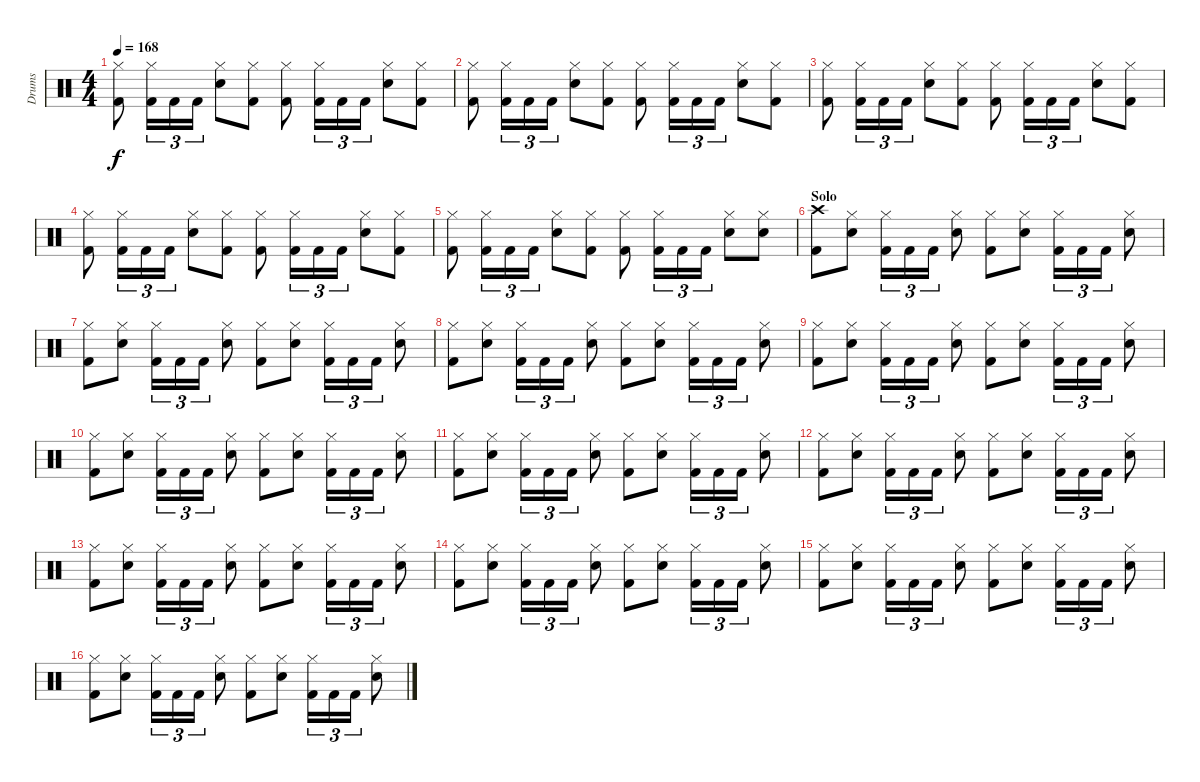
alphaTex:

\track ("Drums" "Drums") {instrument percussion}
\staff {score}
\articulation defaults
\ts (4 4)
\tempo 168
\clef neutral
\ks c
("Hi-Hat (closed)" "Kick (hit) 2").8{dy f} ("Hi-Hat (closed)" "Kick (hit) 2").16{tu (3 2)} "Kick (hit) 2".16{tu (3 2)} "Kick (hit) 2".16{tu (3 2)} ("Hi-Hat (closed)" "Snare (hit) 2").8 ("Hi-Hat (closed)" "Kick (hit) 2").8 ("Hi-Hat (closed)" "Kick (hit) 2").8 ("Hi-Hat (closed)" "Kick (hit) 2").16{tu (3 2)} "Kick (hit) 2".16{tu (3 2)} "Kick (hit) 2".16{tu (3 2)} ("Hi-Hat (closed)" "Snare (hit) 2").8 ("Hi-Hat (closed)" "Kick (hit) 2").8 |
("Hi-Hat (closed)" "Kick (hit) 2").8 ("Hi-Hat (closed)" "Kick (hit) 2").16{tu (3 2)} "Kick (hit) 2".16{tu (3 2)} "Kick (hit) 2".16{tu (3 2)} ("Hi-Hat (closed)" "Snare (hit) 2").8 ("Hi-Hat (closed)" "Kick (hit) 2").8 ("Hi-Hat (closed)" "Kick (hit) 2").8 ("Hi-Hat (closed)" "Kick (hit) 2").16{tu (3 2)} "Kick (hit) 2".16{tu (3 2)} "Kick (hit) 2".16{tu (3 2)} ("Hi-Hat (closed)" "Snare (hit) 2").8 ("Hi-Hat (closed)" "Kick (hit) 2").8 |
("Hi-Hat (closed)" "Kick (hit) 2").8 ("Hi-Hat (closed)" "Kick (hit) 2").16{tu (3 2)} "Kick (hit) 2".16{tu (3 2)} "Kick (hit) 2".16{tu (3 2)} ("Hi-Hat (closed)" "Snare (hit) 2").8 ("Hi-Hat (closed)" "Kick (hit) 2").8 ("Hi-Hat (closed)" "Kick (hit) 2").8 ("Hi-Hat (closed)" "Kick (hit) 2").16{tu (3 2)} "Kick (hit) 2".16{tu (3 2)} "Kick (hit) 2".16{tu (3 2)} ("Hi-Hat (closed)" "Snare (hit) 2").8 ("Hi-Hat (closed)" "Kick (hit) 2").8 |
("Hi-Hat (closed)" "Kick (hit) 2").8 ("Hi-Hat (closed)" "Kick (hit) 2").16{tu (3 2)} "Kick (hit) 2".16{tu (3 2)} "Kick (hit) 2".16{tu (3 2)} ("Hi-Hat (closed)" "Snare (hit) 2").8 ("Hi-Hat (closed)" "Kick (hit) 2").8 ("Hi-Hat (closed)" "Kick (hit) 2").8 ("Hi-Hat (closed)" "Kick (hit) 2").16{tu (3 2)} "Kick (hit) 2".16{tu (3 2)} "Kick (hit) 2".16{tu (3 2)} ("Hi-Hat (closed)" "Snare (hit) 2").8 ("Hi-Hat (closed)" "Kick (hit) 2").8 |
("Hi-Hat (closed)" "Kick (hit) 2").8 ("Hi-Hat (closed)" "Kick (hit) 2").16{tu (3 2)} "Kick (hit) 2".16{tu (3 2)} "Kick (hit) 2".16{tu (3 2)} ("Hi-Hat (closed)" "Snare (hit) 2").8 ("Hi-Hat (closed)" "Kick (hit) 2").8 ("Hi-Hat (closed)" "Kick (hit) 2").8 ("Hi-Hat (closed)" "Kick (hit) 2").16{tu (3 2)} "Kick (hit) 2".16{tu (3 2)} "Kick (hit) 2".16{tu (3 2)} ("Hi-Hat (closed)" "Snare (hit) 2").8 ("Hi-Hat (closed)" "Snare (hit) 2").8 |
\section ("" "Solo")
("Crash high (hit)" "Kick (hit) 2").8 ("Hi-Hat (closed)" "Snare (hit) 2").8 ("Hi-Hat (closed)" "Kick (hit) 2").16{tu (3 2)} "Kick (hit) 2".16{tu (3 2)} "Kick (hit) 2".16{tu (3 2)} ("Hi-Hat (closed)" "Snare (hit) 2").8 ("Hi-Hat (closed)" "Kick (hit) 2").8 ("Hi-Hat (closed)" "Snare (hit) 2").8 ("Hi-Hat (closed)" "Kick (hit) 2").16{tu (3 2)} "Kick (hit) 2".16{tu (3 2)} "Kick (hit) 2".16{tu (3 2)} ("Hi-Hat (closed)" "Snare (hit) 2").8 |
("Hi-Hat (closed)" "Kick (hit) 2").8 ("Hi-Hat (closed)" "Snare (hit) 2").8 ("Hi-Hat (closed)" "Kick (hit) 2").16{tu (3 2)} "Kick (hit) 2".16{tu (3 2)} "Kick (hit) 2".16{tu (3 2)} ("Hi-Hat (closed)" "Snare (hit) 2").8 ("Hi-Hat (closed)" "Kick (hit) 2").8 ("Hi-Hat (closed)" "Snare (hit) 2").8 ("Hi-Hat (closed)" "Kick (hit) 2").16{tu (3 2)} "Kick (hit) 2".16{tu (3 2)} "Kick (hit) 2".16{tu (3 2)} ("Hi-Hat (closed)" "Snare (hit) 2").8 |
("Hi-Hat (closed)" "Kick (hit) 2").8 ("Hi-Hat (closed)" "Snare (hit) 2").8 ("Hi-Hat (closed)" "Kick (hit) 2").16{tu (3 2)} "Kick (hit) 2".16{tu (3 2)} "Kick (hit) 2".16{tu (3 2)} ("Hi-Hat (closed)" "Snare (hit) 2").8 ("Hi-Hat (closed)" "Kick (hit) 2").8 ("Hi-Hat (closed)" "Snare (hit) 2").8 ("Hi-Hat (closed)" "Kick (hit) 2").16{tu (3 2)} "Kick (hit) 2".16{tu (3 2)} "Kick (hit) 2".16{tu (3 2)} ("Hi-Hat (closed)" "Snare (hit) 2").8 |
("Hi-Hat (closed)" "Kick (hit) 2").8 ("Hi-Hat (closed)" "Snare (hit) 2").8 ("Hi-Hat (closed)" "Kick (hit) 2").16{tu (3 2)} "Kick (hit) 2".16{tu (3 2)} "Kick (hit) 2".16{tu (3 2)} ("Hi-Hat (closed)" "Snare (hit) 2").8 ("Hi-Hat (closed)" "Kick (hit) 2").8 ("Hi-Hat (closed)" "Snare (hit) 2").8 ("Hi-Hat (closed)" "Kick (hit) 2").16{tu (3 2)} "Kick (hit) 2".16{tu (3 2)} "Kick (hit) 2".16{tu (3 2)} ("Hi-Hat (closed)" "Snare (hit) 2").8 |
("Hi-Hat (closed)" "Kick (hit) 2").8 ("Hi-Hat (closed)" "Snare (hit) 2").8 ("Hi-Hat (closed)" "Kick (hit) 2").16{tu (3 2)} "Kick (hit) 2".16{tu (3 2)} "Kick (hit) 2".16{tu (3 2)} ("Hi-Hat (closed)" "Snare (hit) 2").8 ("Hi-Hat (closed)" "Kick (hit) 2").8 ("Hi-Hat (closed)" "Snare (hit) 2").8 ("Hi-Hat (closed)" "Kick (hit) 2").16{tu (3 2)} "Kick (hit) 2".16{tu (3 2)} "Kick (hit) 2".16{tu (3 2)} ("Hi-Hat (closed)" "Snare (hit) 2").8 |
("Hi-Hat (closed)" "Kick (hit) 2").8 ("Hi-Hat (closed)" "Snare (hit) 2").8 ("Hi-Hat (closed)" "Kick (hit) 2").16{tu (3 2)} "Kick (hit) 2".16{tu (3 2)} "Kick (hit) 2".16{tu (3 2)} ("Hi-Hat (closed)" "Snare (hit) 2").8 ("Hi-Hat (closed)" "Kick (hit) 2").8 ("Hi-Hat (closed)" "Snare (hit) 2").8 ("Hi-Hat (closed)" "Kick (hit) 2").16{tu (3 2)} "Kick (hit) 2".16{tu (3 2)} "Kick (hit) 2".16{tu (3 2)} ("Hi-Hat (closed)" "Snare (hit) 2").8 |
("Hi-Hat (closed)" "Kick (hit) 2").8 ("Hi-Hat (closed)" "Snare (hit) 2").8 ("Hi-Hat (closed)" "Kick (hit) 2").16{tu (3 2)} "Kick (hit) 2".16{tu (3 2)} "Kick (hit) 2".16{tu (3 2)} ("Hi-Hat (closed)" "Snare (hit) 2").8 ("Hi-Hat (closed)" "Kick (hit) 2").8 ("Hi-Hat (closed)" "Snare (hit) 2").8 ("Hi-Hat (closed)" "Kick (hit) 2").16{tu (3 2)} "Kick (hit) 2".16{tu (3 2)} "Kick (hit) 2".16{tu (3 2)} ("Hi-Hat (closed)" "Snare (hit) 2").8 |
("Hi-Hat (closed)" "Kick (hit) 2").8 ("Hi-Hat (closed)" "Snare (hit) 2").8 ("Hi-Hat (closed)" "Kick (hit) 2").16{tu (3 2)} "Kick (hit) 2".16{tu (3 2)} "Kick (hit) 2".16{tu (3 2)} ("Hi-Hat (closed)" "Snare (hit) 2").8 ("Hi-Hat (closed)" "Kick (hit) 2").8 ("Hi-Hat (closed)" "Snare (hit) 2").8 ("Hi-Hat (closed)" "Kick (hit) 2").16{tu (3 2)} "Kick (hit) 2".16{tu (3 2)} "Kick (hit) 2".16{tu (3 2)} ("Hi-Hat (closed)" "Snare (hit) 2").8 |
("Hi-Hat (closed)" "Kick (hit) 2").8 ("Hi-Hat (closed)" "Snare (hit) 2").8 ("Hi-Hat (closed)" "Kick (hit) 2").16{tu (3 2)} "Kick (hit) 2".16{tu (3 2)} "Kick (hit) 2".16{tu (3 2)} ("Hi-Hat (closed)" "Snare (hit) 2").8 ("Hi-Hat (closed)" "Kick (hit) 2").8 ("Hi-Hat (closed)" "Snare (hit) 2").8 ("Hi-Hat (closed)" "Kick (hit) 2").16{tu (3 2)} "Kick (hit) 2".16{tu (3 2)} "Kick (hit) 2".16{tu (3 2)} ("Hi-Hat (closed)" "Snare (hit) 2").8 |
("Hi-Hat (closed)" "Kick (hit) 2").8 ("Hi-Hat (closed)" "Snare (hit) 2").8 ("Hi-Hat (closed)" "Kick (hit) 2").16{tu (3 2)} "Kick (hit) 2".16{tu (3 2)} "Kick (hit) 2".16{tu (3 2)} ("Hi-Hat (closed)" "Snare (hit) 2").8 ("Hi-Hat (closed)" "Kick (hit) 2").8 ("Hi-Hat (closed)" "Snare (hit) 2").8 ("Hi-Hat (closed)" "Kick (hit) 2").16{tu (3 2)} "Kick (hit) 2".16{tu (3 2)} "Kick (hit) 2".16{tu (3 2)} ("Hi-Hat (closed)" "Snare (hit) 2").8 |
("Hi-Hat (closed)" "Kick (hit) 2").8 ("Hi-Hat (closed)" "Snare (hit) 2").8 ("Hi-Hat (closed)" "Kick (hit) 2").16{tu (3 2)} "Kick (hit) 2".16{tu (3 2)} "Kick (hit) 2".16{tu (3 2)} ("Hi-Hat (closed)" "Snare (hit) 2").8 ("Hi-Hat (closed)" "Kick (hit) 2").8 ("Hi-Hat (closed)" "Snare (hit) 2").8 ("Hi-Hat (closed)" "Kick (hit) 2").16{tu (3 2)} "Kick (hit) 2".16{tu (3 2)} "Kick (hit) 2".16{tu (3 2)} ("Hi-Hat (closed)" "Snare (hit) 2").8
